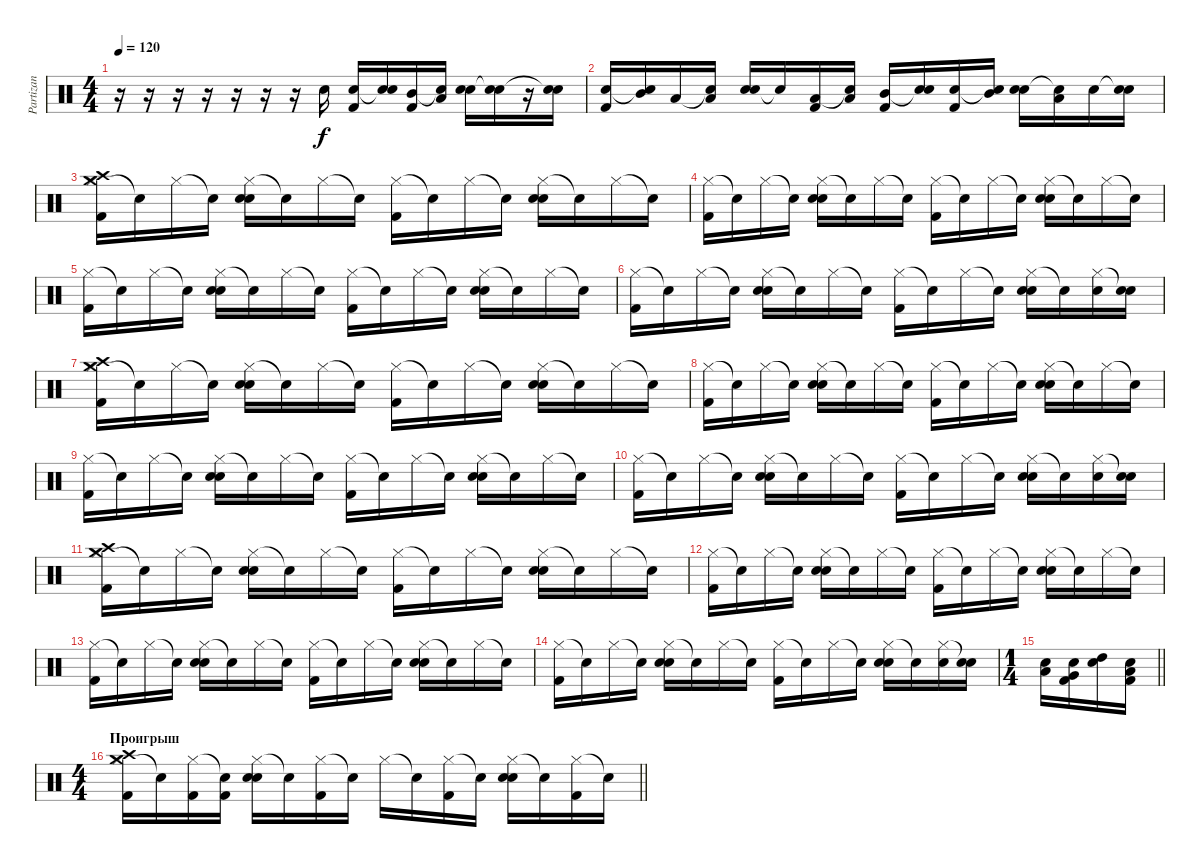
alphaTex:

\track ("Partizan" "Partizan") {instrument percussion}
\staff {score}
\articulation defaults
\ts (4 4)
\tempo 120
\clef neutral
\ks c
r.16{dy f} r.16 r.16 r.16 r.16 r.16 r.16 "Snare (hit)"{t}.16 ("Electric Snare (hit)" "Kick (hit) 2").16 ("Snare (hit)"{t} "Electric Snare (hit)").16 ("Mid Tom (hit)" "Kick (hit) 2").16 ("Snare (hit)"{t} "Low Tom (hit)").16 ("Electric Snare (hit)" "Snare (hit) 2").16 ("Snare (hit)"{t} "Electric Snare (hit)").16 r.16 ("Snare (hit)"{t} "Electric Snare (hit)").16 |
("Electric Snare (hit)" "Kick (hit) 2").16 ("Snare (hit)"{t} "Mid Tom (hit)").16 "Low Tom (hit)".16 ("Snare (hit)"{t} "Low Tom (hit)").16 ("Electric Snare (hit)" "Snare (hit) 2").16 "Snare (hit)"{t}.16 ("Low Tom (hit)" "Kick (hit) 2").16 ("Snare (hit)"{t} "Low Tom (hit)").16 ("Mid Tom (hit)" "Kick (hit) 2").16 ("Snare (hit)"{t} "Electric Snare (hit)").16 ("Electric Snare (hit)" "Kick (hit) 2").16 ("Snare (hit)"{t} "Mid Tom (hit)").16 ("Electric Snare (hit)" "Snare (hit) 2").16 ("Snare (hit)"{t} "Low Tom (hit)").16 "Electric Snare (hit)".16 ("Snare (hit)"{t} "Electric Snare (hit)").16 |
("Hi-Hat (closed)" "Crash high (hit)" "Crash medium (hit)" "Kick (hit) 2").16 "Snare (hit)"{t}.16 "Hi-Hat (closed)".16 "Snare (hit)"{t}.16 ("Hi-Hat (closed)" "Electric Snare (hit)" "Snare (hit) 2").16 "Snare (hit)"{t}.16 "Hi-Hat (closed)".16 "Snare (hit)"{t}.16 ("Hi-Hat (closed)" "Kick (hit) 2").16 "Snare (hit)"{t}.16 "Hi-Hat (closed)".16 "Snare (hit)"{t}.16 ("Hi-Hat (closed)" "Electric Snare (hit)" "Snare (hit) 2").16 "Snare (hit)"{t}.16 "Hi-Hat (closed)".16 "Snare (hit)"{t}.16 |
("Hi-Hat (closed)" "Kick (hit) 2").16 "Snare (hit)"{t}.16 "Hi-Hat (closed)".16 "Snare (hit)"{t}.16 ("Hi-Hat (closed)" "Electric Snare (hit)" "Snare (hit) 2").16 "Snare (hit)"{t}.16 "Hi-Hat (closed)".16 "Snare (hit)"{t}.16 ("Hi-Hat (closed)" "Kick (hit) 2").16 "Snare (hit)"{t}.16 "Hi-Hat (closed)".16 "Snare (hit)"{t}.16 ("Hi-Hat (closed)" "Electric Snare (hit)" "Snare (hit) 2").16 "Snare (hit)"{t}.16 "Hi-Hat (closed)".16 "Snare (hit)"{t}.16 |
("Hi-Hat (closed)" "Kick (hit) 2").16 "Snare (hit)"{t}.16 "Hi-Hat (closed)".16 "Snare (hit)"{t}.16 ("Hi-Hat (closed)" "Electric Snare (hit)" "Snare (hit) 2").16 "Snare (hit)"{t}.16 "Hi-Hat (closed)".16 "Snare (hit)"{t}.16 ("Hi-Hat (closed)" "Kick (hit) 2").16 "Snare (hit)"{t}.16 "Hi-Hat (closed)".16 "Snare (hit)"{t}.16 ("Hi-Hat (closed)" "Electric Snare (hit)" "Snare (hit) 2").16 "Snare (hit)"{t}.16 "Hi-Hat (closed)".16 "Snare (hit)"{t}.16 |
("Hi-Hat (closed)" "Kick (hit) 2").16 "Snare (hit)"{t}.16 "Hi-Hat (closed)".16 "Snare (hit)"{t}.16 ("Hi-Hat (closed)" "Electric Snare (hit)" "Snare (hit) 2").16 "Snare (hit)"{t}.16 "Hi-Hat (closed)".16 "Snare (hit)"{t}.16 ("Hi-Hat (closed)" "Kick (hit) 2").16 "Snare (hit)"{t}.16 "Hi-Hat (closed)".16 "Snare (hit)"{t}.16 ("Hi-Hat (closed)" "Electric Snare (hit)" "Snare (hit) 2").16 "Snare (hit)"{t}.16 ("Hi-Hat (closed)" "Electric Snare (hit)").16 ("Snare (hit)"{t} "Electric Snare (hit)").16 |
("Hi-Hat (closed)" "Crash high (hit)" "Crash medium (hit)" "Kick (hit) 2").16 "Snare (hit)"{t}.16 "Hi-Hat (closed)".16 "Snare (hit)"{t}.16 ("Hi-Hat (closed)" "Electric Snare (hit)" "Snare (hit) 2").16 "Snare (hit)"{t}.16 "Hi-Hat (closed)".16 "Snare (hit)"{t}.16 ("Hi-Hat (closed)" "Kick (hit) 2").16 "Snare (hit)"{t}.16 "Hi-Hat (closed)".16 "Snare (hit)"{t}.16 ("Hi-Hat (closed)" "Electric Snare (hit)" "Snare (hit) 2").16 "Snare (hit)"{t}.16 "Hi-Hat (closed)".16 "Snare (hit)"{t}.16 |
("Hi-Hat (closed)" "Kick (hit) 2").16 "Snare (hit)"{t}.16 "Hi-Hat (closed)".16 "Snare (hit)"{t}.16 ("Hi-Hat (closed)" "Electric Snare (hit)" "Snare (hit) 2").16 "Snare (hit)"{t}.16 "Hi-Hat (closed)".16 "Snare (hit)"{t}.16 ("Hi-Hat (closed)" "Kick (hit) 2").16 "Snare (hit)"{t}.16 "Hi-Hat (closed)".16 "Snare (hit)"{t}.16 ("Hi-Hat (closed)" "Electric Snare (hit)" "Snare (hit) 2").16 "Snare (hit)"{t}.16 "Hi-Hat (closed)".16 "Snare (hit)"{t}.16 |
("Hi-Hat (closed)" "Kick (hit) 2").16 "Snare (hit)"{t}.16 "Hi-Hat (closed)".16 "Snare (hit)"{t}.16 ("Hi-Hat (closed)" "Electric Snare (hit)" "Snare (hit) 2").16 "Snare (hit)"{t}.16 "Hi-Hat (closed)".16 "Snare (hit)"{t}.16 ("Hi-Hat (closed)" "Kick (hit) 2").16 "Snare (hit)"{t}.16 "Hi-Hat (closed)".16 "Snare (hit)"{t}.16 ("Hi-Hat (closed)" "Electric Snare (hit)" "Snare (hit) 2").16 "Snare (hit)"{t}.16 "Hi-Hat (closed)".16 "Snare (hit)"{t}.16 |
("Hi-Hat (closed)" "Kick (hit) 2").16 "Snare (hit)"{t}.16 "Hi-Hat (closed)".16 "Snare (hit)"{t}.16 ("Hi-Hat (closed)" "Electric Snare (hit)" "Snare (hit) 2").16 "Snare (hit)"{t}.16 "Hi-Hat (closed)".16 "Snare (hit)"{t}.16 ("Hi-Hat (closed)" "Kick (hit) 2").16 "Snare (hit)"{t}.16 "Hi-Hat (closed)".16 "Snare (hit)"{t}.16 ("Hi-Hat (closed)" "Electric Snare (hit)" "Snare (hit) 2").16 "Snare (hit)"{t}.16 ("Hi-Hat (closed)" "Electric Snare (hit)").16 ("Snare (hit)"{t} "Electric Snare (hit)").16 |
("Hi-Hat (closed)" "Crash high (hit)" "Crash medium (hit)" "Kick (hit) 2").16 "Snare (hit)"{t}.16 "Hi-Hat (closed)".16 "Snare (hit)"{t}.16 ("Hi-Hat (closed)" "Electric Snare (hit)" "Snare (hit) 2").16 "Snare (hit)"{t}.16 "Hi-Hat (closed)".16 "Snare (hit)"{t}.16 ("Hi-Hat (closed)" "Kick (hit) 2").16 "Snare (hit)"{t}.16 "Hi-Hat (closed)".16 "Snare (hit)"{t}.16 ("Hi-Hat (closed)" "Electric Snare (hit)" "Snare (hit) 2").16 "Snare (hit)"{t}.16 "Hi-Hat (closed)".16 "Snare (hit)"{t}.16 |
("Hi-Hat (closed)" "Kick (hit) 2").16 "Snare (hit)"{t}.16 "Hi-Hat (closed)".16 "Snare (hit)"{t}.16 ("Hi-Hat (closed)" "Electric Snare (hit)" "Snare (hit) 2").16 "Snare (hit)"{t}.16 "Hi-Hat (closed)".16 "Snare (hit)"{t}.16 ("Hi-Hat (closed)" "Kick (hit) 2").16 "Snare (hit)"{t}.16 "Hi-Hat (closed)".16 "Snare (hit)"{t}.16 ("Hi-Hat (closed)" "Electric Snare (hit)" "Snare (hit) 2").16 "Snare (hit)"{t}.16 "Hi-Hat (closed)".16 "Snare (hit)"{t}.16 |
("Hi-Hat (closed)" "Kick (hit) 2").16 "Snare (hit)"{t}.16 "Hi-Hat (closed)".16 "Snare (hit)"{t}.16 ("Hi-Hat (closed)" "Electric Snare (hit)" "Snare (hit) 2").16 "Snare (hit)"{t}.16 "Hi-Hat (closed)".16 "Snare (hit)"{t}.16 ("Hi-Hat (closed)" "Kick (hit) 2").16 "Snare (hit)"{t}.16 "Hi-Hat (closed)".16 "Snare (hit)"{t}.16 ("Hi-Hat (closed)" "Electric Snare (hit)" "Snare (hit) 2").16 "Snare (hit)"{t}.16 "Hi-Hat (closed)".16 "Snare (hit)"{t}.16 |
("Hi-Hat (closed)" "Kick (hit) 2").16 "Snare (hit)"{t}.16 "Hi-Hat (closed)".16 "Snare (hit)"{t}.16 ("Hi-Hat (closed)" "Electric Snare (hit)" "Snare (hit) 2").16 "Snare (hit)"{t}.16 "Hi-Hat (closed)".16 "Snare (hit)"{t}.16 ("Hi-Hat (closed)" "Kick (hit) 2").16 "Snare (hit)"{t}.16 "Hi-Hat (closed)".16 "Snare (hit)"{t}.16 ("Hi-Hat (closed)" "Electric Snare (hit)" "Snare (hit) 2").16 "Snare (hit)"{t}.16 ("Hi-Hat (closed)" "Electric Snare (hit)").16 ("Snare (hit)"{t} "Electric Snare (hit)").16 |
\ts (1 4)
\barLineRight lightlight
("Low Tom (hit)" "Electric Snare (hit)").16 ("Very Low Tom (hit)" "Electric Snare (hit)" "Kick (hit) 2").16 ("High Tom (hit)" "Electric Snare (hit)").16 ("Low Floor Tom (hit)" "Electric Snare (hit)" "Kick (hit) 2").16 |
\ts (4 4)
\section ("" "Проигрыш")
\barLineRight lightlight
("Hi-Hat (closed)" "Crash high (hit)" "Crash medium (hit)" "Kick (hit) 2").16 "Snare (hit)"{t}.16 ("Hi-Hat (closed)" "Kick (hit) 2").16 ("Snare (hit)"{t} "Kick (hit) 2").16 ("Hi-Hat (closed)" "Electric Snare (hit)" "Snare (hit) 2").16 "Snare (hit)"{t}.16 ("Hi-Hat (closed)" "Kick (hit) 2").16 "Snare (hit)"{t}.16 "Hi-Hat (closed)".16 "Snare (hit)"{t}.16 ("Hi-Hat (closed)" "Kick (hit) 2").16 "Snare (hit)"{t}.16 ("Hi-Hat (closed)" "Electric Snare (hit)" "Snare (hit) 2").16 "Snare (hit)"{t}.16 ("Hi-Hat (closed)" "Kick (hit) 2").16 "Snare (hit)"{t}.16
